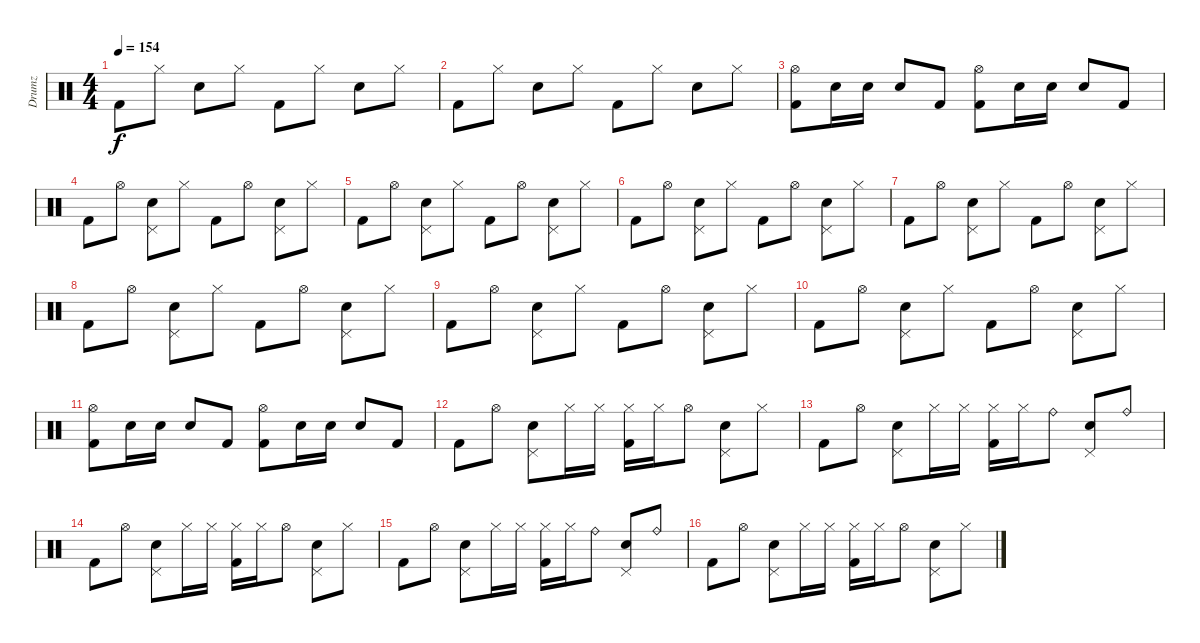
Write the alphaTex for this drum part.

\track ("Drumz" "Drumz") {instrument percussion}
\staff {score}
\articulation defaults
\ts (4 4)
\tempo 154
\clef neutral
\ks c "Kick (hit) 2".8{dy f} "Hi-Hat (closed)".8 "Electric Snare (hit)".8 "Hi-Hat (closed)".8 "Kick (hit) 2".8 "Hi-Hat (closed)".8 "Electric Snare (hit)".8 "Hi-Hat (closed)".8
|
"Kick (hit) 2".8 "Hi-Hat (closed)".8 "Electric Snare (hit)".8 "Hi-Hat (closed)".8 "Kick (hit) 2".8 "Hi-Hat (closed)".8 "Electric Snare (hit)".8 "Hi-Hat (closed)".8 |
("Hi-Hat (open)" "Kick (hit) 2").8 "Electric Snare (hit)".16 "Electric Snare (hit)".16 "Electric Snare (hit)".8 "Kick (hit) 2".8 ("Hi-Hat (open)" "Kick (hit) 2").8 "Electric Snare (hit)".16 "Electric Snare (hit)".16 "Electric Snare (hit)".8 "Kick (hit) 2".8 |
"Kick (hit) 2".8 "Hi-Hat (open)".8 ("Pedal Hi-Hat (hit)" "Electric Snare (hit)").8 "Hi-Hat (closed)".8 "Kick (hit) 2".8 "Hi-Hat (open)".8 ("Pedal Hi-Hat (hit)" "Electric Snare (hit)").8 "Hi-Hat (closed)".8 |
"Kick (hit) 2".8 "Hi-Hat (open)".8 ("Pedal Hi-Hat (hit)" "Electric Snare (hit)").8 "Hi-Hat (closed)".8 "Kick (hit) 2".8 "Hi-Hat (open)".8 ("Pedal Hi-Hat (hit)" "Electric Snare (hit)").8 "Hi-Hat (closed)".8 |
"Kick (hit) 2".8 "Hi-Hat (open)".8 ("Pedal Hi-Hat (hit)" "Electric Snare (hit)").8 "Hi-Hat (closed)".8 "Kick (hit) 2".8 "Hi-Hat (open)".8 ("Pedal Hi-Hat (hit)" "Electric Snare (hit)").8 "Hi-Hat (closed)".8 |
"Kick (hit) 2".8 "Hi-Hat (open)".8 ("Pedal Hi-Hat (hit)" "Electric Snare (hit)").8 "Hi-Hat (closed)".8 "Kick (hit) 2".8 "Hi-Hat (open)".8 ("Pedal Hi-Hat (hit)" "Electric Snare (hit)").8 "Hi-Hat (closed)".8 |
"Kick (hit) 2".8 "Hi-Hat (open)".8 ("Pedal Hi-Hat (hit)" "Electric Snare (hit)").8 "Hi-Hat (closed)".8 "Kick (hit) 2".8 "Hi-Hat (open)".8 ("Pedal Hi-Hat (hit)" "Electric Snare (hit)").8 "Hi-Hat (closed)".8 |
"Kick (hit) 2".8 "Hi-Hat (open)".8 ("Pedal Hi-Hat (hit)" "Electric Snare (hit)").8 "Hi-Hat (closed)".8 "Kick (hit) 2".8 "Hi-Hat (open)".8 ("Pedal Hi-Hat (hit)" "Electric Snare (hit)").8 "Hi-Hat (closed)".8 |
"Kick (hit) 2".8 "Hi-Hat (open)".8 ("Pedal Hi-Hat (hit)" "Electric Snare (hit)").8 "Hi-Hat (closed)".8 "Kick (hit) 2".8 "Hi-Hat (open)".8 ("Pedal Hi-Hat (hit)" "Electric Snare (hit)").8 "Hi-Hat (closed)".8 |
("Hi-Hat (open)" "Kick (hit) 2").8 "Electric Snare (hit)".16 "Electric Snare (hit)".16 "Electric Snare (hit)".8 "Kick (hit) 2".8 ("Hi-Hat (open)" "Kick (hit) 2").8 "Electric Snare (hit)".16 "Electric Snare (hit)".16 "Electric Snare (hit)".8 "Kick (hit) 2".8 |
"Kick (hit) 2".8 "Hi-Hat (open)".8 ("Pedal Hi-Hat (hit)" "Electric Snare (hit)").8 "Hi-Hat (closed)".16 "Hi-Hat (closed)".16 ("Hi-Hat (closed)" "Kick (hit) 2").16 "Hi-Hat (closed)".16 "Hi-Hat (open)".8 ("Pedal Hi-Hat (hit)" "Electric Snare (hit)").8 "Hi-Hat (closed)".8 |
"Kick (hit) 2".8 "Hi-Hat (open)".8 ("Pedal Hi-Hat (hit)" "Electric Snare (hit)").8 "Hi-Hat (closed)".16 "Hi-Hat (closed)".16 ("Hi-Hat (closed)" "Kick (hit) 2").16 "Hi-Hat (closed)".16 "Ride (bell)".8 ("Pedal Hi-Hat (hit)" "Electric Snare (hit)").8 "Ride (bell)".8 |
"Kick (hit) 2".8 "Hi-Hat (open)".8 ("Pedal Hi-Hat (hit)" "Electric Snare (hit)").8 "Hi-Hat (closed)".16 "Hi-Hat (closed)".16 ("Hi-Hat (closed)" "Kick (hit) 2").16 "Hi-Hat (closed)".16 "Hi-Hat (open)".8 ("Pedal Hi-Hat (hit)" "Electric Snare (hit)").8 "Hi-Hat (closed)".8 |
"Kick (hit) 2".8 "Hi-Hat (open)".8 ("Pedal Hi-Hat (hit)" "Electric Snare (hit)").8 "Hi-Hat (closed)".16 "Hi-Hat (closed)".16 ("Hi-Hat (closed)" "Kick (hit) 2").16 "Hi-Hat (closed)".16 "Ride (bell)".8 ("Pedal Hi-Hat (hit)" "Electric Snare (hit)").8 "Ride (bell)".8 |
"Kick (hit) 2".8 "Hi-Hat (open)".8 ("Pedal Hi-Hat (hit)" "Electric Snare (hit)").8 "Hi-Hat (closed)".16 "Hi-Hat (closed)".16 ("Hi-Hat (closed)" "Kick (hit) 2").16 "Hi-Hat (closed)".16 "Hi-Hat (open)".8 ("Pedal Hi-Hat (hit)" "Electric Snare (hit)").8 "Hi-Hat (closed)".8
